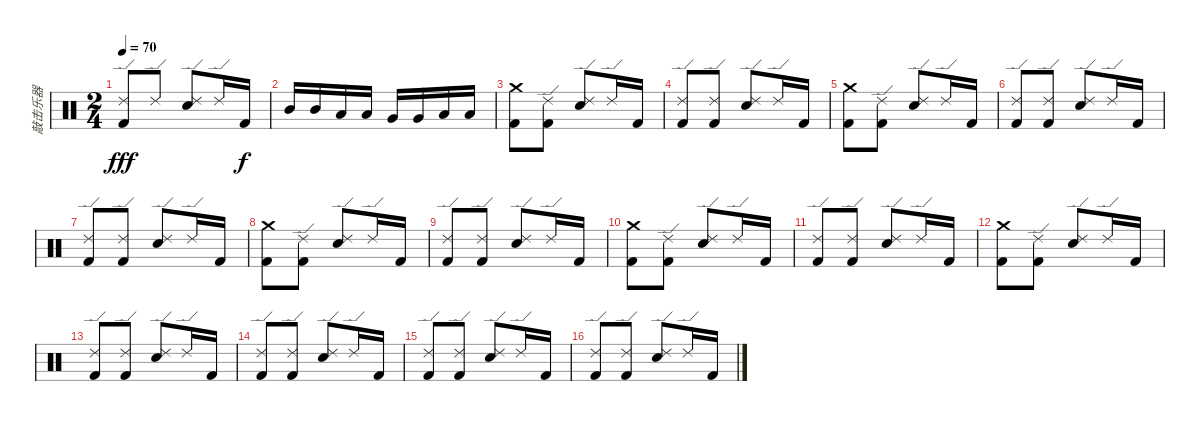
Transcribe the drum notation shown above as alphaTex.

\track ("敲击乐器" "敲击乐器") {instrument percussion}
\staff {score}
\articulation defaults
\ts (2 4)
\tempo 70
\clef neutral
\ks c
("Ride (edge) 2" "Kick (hit) 2").8{dy fff} "Ride (edge) 2".8 ("Ride (edge) 2" "Snare (hit) 2").8 "Ride (edge) 2".16 "Kick (hit) 2".16{dy f} |
"Mid Tom (hit)".16 "Mid Tom (hit)".16 "Low Tom (hit)".16 "Low Tom (hit)".16 "Very Low Tom (hit)".16 "Very Low Tom (hit)".16 "Low Floor Tom (hit)".16 "Low Floor Tom (hit)".16 |
("Crash medium (hit)" "Kick (hit) 2").8 ("Ride (edge) 2" "Kick (hit) 2").8 ("Ride (edge) 2" "Snare (hit) 2").8 "Ride (edge) 2".16 "Kick (hit) 2".16 |
("Ride (edge) 2" "Kick (hit) 2").8 ("Ride (edge) 2" "Kick (hit) 2").8 ("Ride (edge) 2" "Snare (hit) 2").8 "Ride (edge) 2".16 "Kick (hit) 2".16 |
("Crash medium (hit)" "Kick (hit) 2").8 ("Ride (edge) 2" "Kick (hit) 2").8 ("Ride (edge) 2" "Snare (hit) 2").8 "Ride (edge) 2".16 "Kick (hit) 2".16 |
("Ride (edge) 2" "Kick (hit) 2").8 ("Ride (edge) 2" "Kick (hit) 2").8 ("Ride (edge) 2" "Snare (hit) 2").8 "Ride (edge) 2".16 "Kick (hit) 2".16 |
("Ride (edge) 2" "Kick (hit) 2").8 ("Ride (edge) 2" "Kick (hit) 2").8 ("Ride (edge) 2" "Snare (hit) 2").8 "Ride (edge) 2".16 "Kick (hit) 2".16 |
("Crash medium (hit)" "Kick (hit) 2").8 ("Ride (edge) 2" "Kick (hit) 2").8 ("Ride (edge) 2" "Snare (hit) 2").8 "Ride (edge) 2".16 "Kick (hit) 2".16 |
("Ride (edge) 2" "Kick (hit) 2").8 ("Ride (edge) 2" "Kick (hit) 2").8 ("Ride (edge) 2" "Snare (hit) 2").8 "Ride (edge) 2".16 "Kick (hit) 2".16 |
("Crash medium (hit)" "Kick (hit) 2").8 ("Ride (edge) 2" "Kick (hit) 2").8 ("Ride (edge) 2" "Snare (hit) 2").8 "Ride (edge) 2".16 "Kick (hit) 2".16 |
("Ride (edge) 2" "Kick (hit) 2").8 ("Ride (edge) 2" "Kick (hit) 2").8 ("Ride (edge) 2" "Snare (hit) 2").8 "Ride (edge) 2".16 "Kick (hit) 2".16 |
("Crash medium (hit)" "Kick (hit) 2").8 ("Ride (edge) 2" "Kick (hit) 2").8 ("Ride (edge) 2" "Snare (hit) 2").8 "Ride (edge) 2".16 "Kick (hit) 2".16 |
("Ride (edge) 2" "Kick (hit) 2").8 ("Ride (edge) 2" "Kick (hit) 2").8 ("Ride (edge) 2" "Snare (hit) 2").8 "Ride (edge) 2".16 "Kick (hit) 2".16 |
("Ride (edge) 2" "Kick (hit) 2").8 ("Ride (edge) 2" "Kick (hit) 2").8 ("Ride (edge) 2" "Snare (hit) 2").8 "Ride (edge) 2".16 "Kick (hit) 2".16 |
("Ride (edge) 2" "Kick (hit) 2").8 ("Ride (edge) 2" "Kick (hit) 2").8 ("Ride (edge) 2" "Snare (hit) 2").8 "Ride (edge) 2".16 "Kick (hit) 2".16 |
("Ride (edge) 2" "Kick (hit) 2").8 ("Ride (edge) 2" "Kick (hit) 2").8 ("Ride (edge) 2" "Snare (hit) 2").8 "Ride (edge) 2".16 "Kick (hit) 2".16
